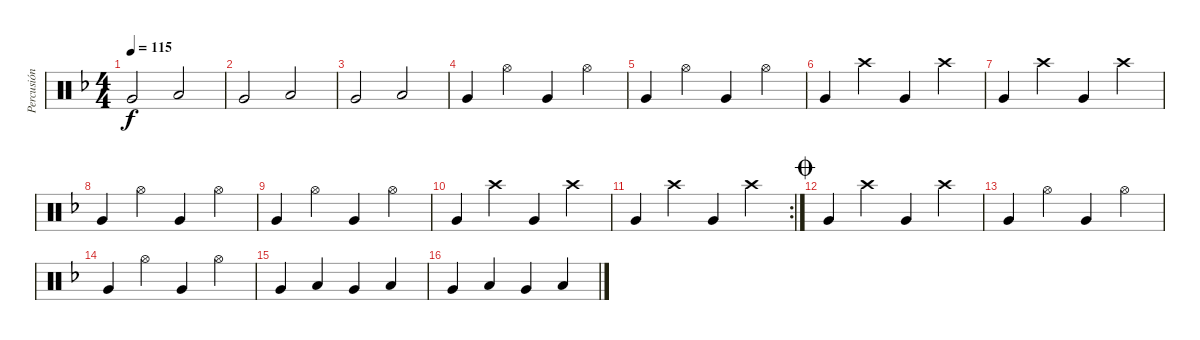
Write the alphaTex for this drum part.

\track ("Percusión" "Percusión") {instrument percussion}
\staff {score}
\articulation defaults
\ts (4 4)
\tempo 115
\clef neutral
\ks dminor "Very Low Tom (hit)".2{dy f} "Low Floor Tom (hit)".2
|
"Very Low Tom (hit)".2 "Low Floor Tom (hit)".2 |
"Very Low Tom (hit)".2 "Low Floor Tom (hit)".2 |
"Very Low Tom (hit)".4 "Hi-Hat (open)".4 "Very Low Tom (hit)".4 "Hi-Hat (open)".4 |
"Very Low Tom (hit)".4 "Hi-Hat (open)".4 "Very Low Tom (hit)".4 "Hi-Hat (open)".4 |
"Very Low Tom (hit)".4 "Crash high (hit)".4 "Very Low Tom (hit)".4 "Crash high (hit)".4 |
"Very Low Tom (hit)".4 "Crash high (hit)".4 "Very Low Tom (hit)".4 "Crash high (hit)".4 |
"Very Low Tom (hit)".4 "Hi-Hat (open)".4 "Very Low Tom (hit)".4 "Hi-Hat (open)".4 |
"Very Low Tom (hit)".4 "Hi-Hat (open)".4 "Very Low Tom (hit)".4 "Hi-Hat (open)".4 |
"Very Low Tom (hit)".4 "Crash high (hit)".4 "Very Low Tom (hit)".4 "Crash high (hit)".4 |
\rc 2 "Very Low Tom (hit)".4 "Crash high (hit)".4 "Very Low Tom (hit)".4 "Crash high (hit)".4
|
\jump coda "Very Low Tom (hit)".4 "Crash high (hit)".4 "Very Low Tom (hit)".4 "Crash high (hit)".4
|
"Very Low Tom (hit)".4 "Hi-Hat (open)".4 "Very Low Tom (hit)".4 "Hi-Hat (open)".4 |
"Very Low Tom (hit)".4 "Hi-Hat (open)".4 "Very Low Tom (hit)".4 "Hi-Hat (open)".4 |
"Very Low Tom (hit)".4 "Low Tom (hit)".4 "Very Low Tom (hit)".4 "Low Tom (hit)".4 |
"Very Low Tom (hit)".4 "Low Tom (hit)".4 "Very Low Tom (hit)".4 "Low Tom (hit)".4
